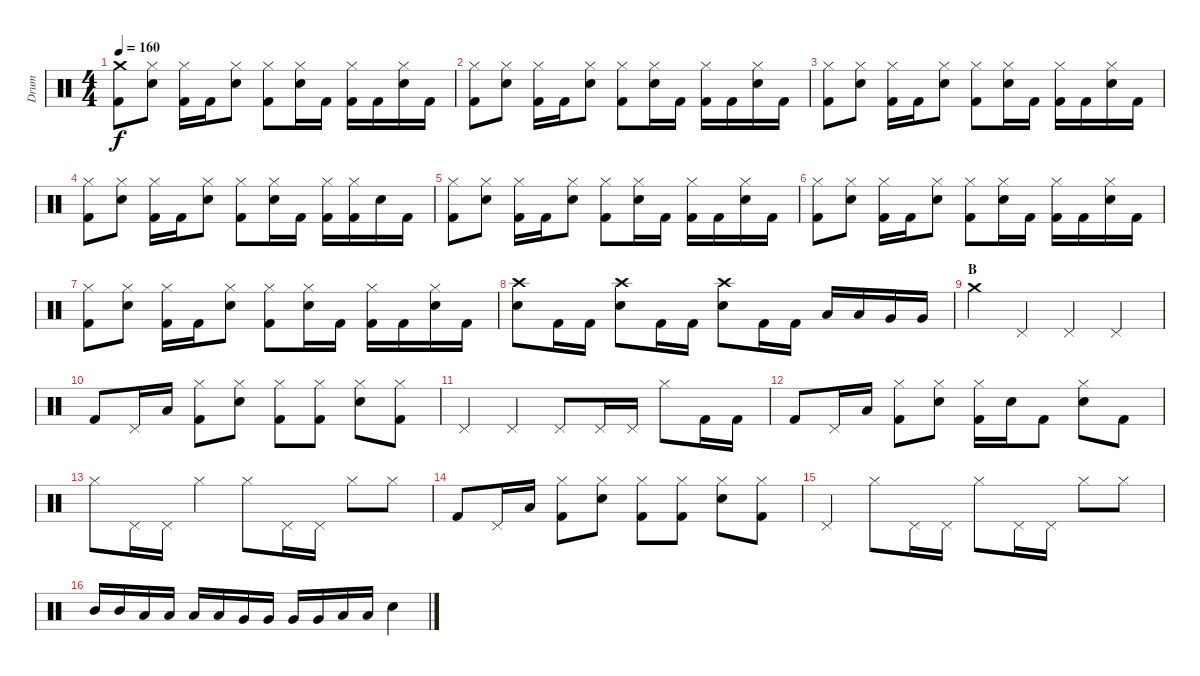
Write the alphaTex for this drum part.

\track ("Drum" "Drum") {instrument percussion}
\staff {score}
\articulation defaults
\ts (4 4)
\tempo 160
\clef neutral
\ks c
("Crash medium (hit)" "Kick (hit) 2").8{dy f} ("Hi-Hat (closed)" "Snare (hit) 2").8 ("Hi-Hat (closed)" "Kick (hit) 2").16 "Kick (hit) 2".16 ("Hi-Hat (closed)" "Snare (hit) 2").8 ("Hi-Hat (closed)" "Kick (hit) 2").8 ("Hi-Hat (closed)" "Snare (hit) 2").16 "Kick (hit) 2".16 ("Hi-Hat (closed)" "Kick (hit) 2").16 "Kick (hit) 2".16 ("Hi-Hat (closed)" "Snare (hit) 2").16 "Kick (hit) 2".16 |
("Hi-Hat (closed)" "Kick (hit) 2").8 ("Hi-Hat (closed)" "Snare (hit) 2").8 ("Hi-Hat (closed)" "Kick (hit) 2").16 "Kick (hit) 2".16 ("Hi-Hat (closed)" "Snare (hit) 2").8 ("Hi-Hat (closed)" "Kick (hit) 2").8 ("Hi-Hat (closed)" "Snare (hit) 2").16 "Kick (hit) 2".16 ("Hi-Hat (closed)" "Kick (hit) 2").16 "Kick (hit) 2".16 ("Hi-Hat (closed)" "Snare (hit) 2").16 "Kick (hit) 2".16 |
("Hi-Hat (closed)" "Kick (hit) 2").8 ("Hi-Hat (closed)" "Snare (hit) 2").8 ("Hi-Hat (closed)" "Kick (hit) 2").16 "Kick (hit) 2".16 ("Hi-Hat (closed)" "Snare (hit) 2").8 ("Hi-Hat (closed)" "Kick (hit) 2").8 ("Hi-Hat (closed)" "Snare (hit) 2").16 "Kick (hit) 2".16 ("Hi-Hat (closed)" "Kick (hit) 2").16 "Kick (hit) 2".16 ("Hi-Hat (closed)" "Snare (hit) 2").16 "Kick (hit) 2".16 |
("Hi-Hat (closed)" "Kick (hit) 2").8 ("Hi-Hat (closed)" "Snare (hit) 2").8 ("Hi-Hat (closed)" "Kick (hit) 2").16 "Kick (hit) 2".16 ("Hi-Hat (closed)" "Snare (hit) 2").8 ("Hi-Hat (closed)" "Kick (hit) 2").8 ("Hi-Hat (closed)" "Snare (hit) 2").16 "Kick (hit) 2".16 ("Hi-Hat (closed)" "Kick (hit) 2").16 ("Hi-Hat (closed)" "Kick (hit) 2").16 "Snare (hit) 2".16 "Kick (hit) 2".16 |
("Hi-Hat (closed)" "Kick (hit) 2").8 ("Hi-Hat (closed)" "Snare (hit) 2").8 ("Hi-Hat (closed)" "Kick (hit) 2").16 "Kick (hit) 2".16 ("Hi-Hat (closed)" "Snare (hit) 2").8 ("Hi-Hat (closed)" "Kick (hit) 2").8 ("Hi-Hat (closed)" "Snare (hit) 2").16 "Kick (hit) 2".16 ("Hi-Hat (closed)" "Kick (hit) 2").16 "Kick (hit) 2".16 ("Hi-Hat (closed)" "Snare (hit) 2").16 "Kick (hit) 2".16 |
("Hi-Hat (closed)" "Kick (hit) 2").8 ("Hi-Hat (closed)" "Snare (hit) 2").8 ("Hi-Hat (closed)" "Kick (hit) 2").16 "Kick (hit) 2".16 ("Hi-Hat (closed)" "Snare (hit) 2").8 ("Hi-Hat (closed)" "Kick (hit) 2").8 ("Hi-Hat (closed)" "Snare (hit) 2").16 "Kick (hit) 2".16 ("Hi-Hat (closed)" "Kick (hit) 2").16 "Kick (hit) 2".16 ("Hi-Hat (closed)" "Snare (hit) 2").16 "Kick (hit) 2".16 |
("Hi-Hat (closed)" "Kick (hit) 2").8 ("Hi-Hat (closed)" "Snare (hit) 2").8 ("Hi-Hat (closed)" "Kick (hit) 2").16 "Kick (hit) 2".16 ("Hi-Hat (closed)" "Snare (hit) 2").8 ("Hi-Hat (closed)" "Kick (hit) 2").8 ("Hi-Hat (closed)" "Snare (hit) 2").16 "Kick (hit) 2".16 ("Hi-Hat (closed)" "Kick (hit) 2").16 "Kick (hit) 2".16 ("Hi-Hat (closed)" "Snare (hit) 2").16 "Kick (hit) 2".16 |
("Crash high (hit)" "Snare (hit) 2").8 "Kick (hit) 2".16 "Kick (hit) 2".16 ("Crash high (hit)" "Snare (hit) 2").8 "Kick (hit) 2".16 "Kick (hit) 2".16 ("Crash high (hit)" "Snare (hit) 2").8 "Kick (hit) 2".16 "Kick (hit) 2".16 "Low Tom (hit)".16 "Low Tom (hit)".16 "Very Low Tom (hit)".16 "Very Low Tom (hit)".16 |
\section ("" "B")
"Crash medium (hit)".4 "Pedal Hi-Hat (hit)".4 "Pedal Hi-Hat (hit)".4 "Pedal Hi-Hat (hit)".4 |
"Kick (hit) 2".8 "Pedal Hi-Hat (hit)".16 "Low Tom (hit)".16 ("Hi-Hat (closed)" "Kick (hit) 2").8 ("Hi-Hat (closed)" "Snare (hit) 2").8 ("Hi-Hat (closed)" "Kick (hit) 2").8 ("Hi-Hat (closed)" "Kick (hit) 2").8 ("Hi-Hat (closed)" "Snare (hit) 2").8 ("Hi-Hat (closed)" "Kick (hit) 2").8 |
"Pedal Hi-Hat (hit)".4 "Pedal Hi-Hat (hit)".4 "Pedal Hi-Hat (hit)".8 "Pedal Hi-Hat (hit)".16 "Pedal Hi-Hat (hit)".16 "Hi-Hat (closed)".8 "Kick (hit) 2".16 "Kick (hit) 2".16 |
"Kick (hit) 2".8 "Pedal Hi-Hat (hit)".16 "Low Tom (hit)".16 ("Hi-Hat (closed)" "Kick (hit) 2").8 ("Hi-Hat (closed)" "Snare (hit) 2").8 ("Hi-Hat (closed)" "Kick (hit) 2").16 "Snare (hit) 2".16 "Kick (hit) 2".8 ("Hi-Hat (closed)" "Snare (hit) 2").8 "Kick (hit) 2".8 |
"Hi-Hat (closed)".8 "Pedal Hi-Hat (hit)".16 "Pedal Hi-Hat (hit)".16 "Hi-Hat (closed)".4 "Hi-Hat (closed)".8 "Pedal Hi-Hat (hit)".16 "Pedal Hi-Hat (hit)".16 "Hi-Hat (closed)".8 "Hi-Hat (closed)".8 |
"Kick (hit) 2".8 "Pedal Hi-Hat (hit)".16 "Low Tom (hit)".16 ("Hi-Hat (closed)" "Kick (hit) 2").8 ("Hi-Hat (closed)" "Snare (hit) 2").8 ("Hi-Hat (closed)" "Kick (hit) 2").8 ("Hi-Hat (closed)" "Kick (hit) 2").8 ("Hi-Hat (closed)" "Snare (hit) 2").8 ("Hi-Hat (closed)" "Kick (hit) 2").8 |
"Pedal Hi-Hat (hit)".4 "Hi-Hat (closed)".8 "Pedal Hi-Hat (hit)".16 "Pedal Hi-Hat (hit)".16 "Hi-Hat (closed)".8 "Pedal Hi-Hat (hit)".16 "Pedal Hi-Hat (hit)".16 "Hi-Hat (closed)".8 "Hi-Hat (closed)".8 |
"Mid Tom (hit)".16 "Mid Tom (hit)".16 "Low Tom (hit)".16 "Low Tom (hit)".16 "Low Tom (hit)".16 "Low Tom (hit)".16 "Very Low Tom (hit)".16 "Very Low Tom (hit)".16 "Very Low Tom (hit)".16 "Very Low Tom (hit)".16 "Low Floor Tom (hit)".16 "Low Floor Tom (hit)".16 "Snare (hit) 2".4
